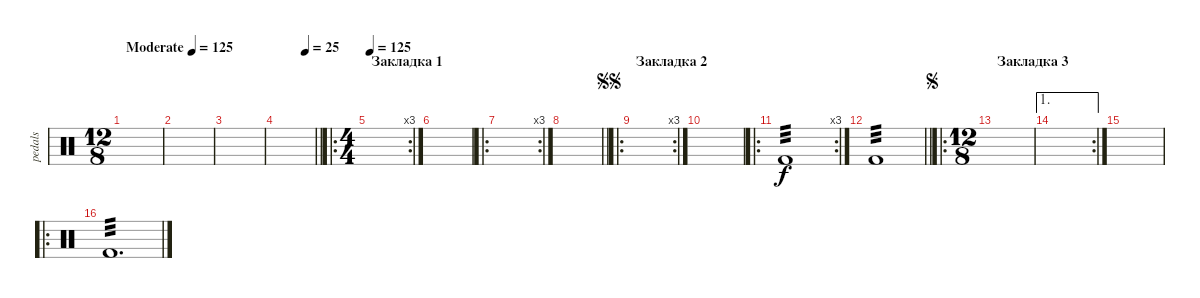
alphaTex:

\track ("pedals" "pedals") {instrument percussion}
\staff {score}
\articulation defaults
\ts (12 8)
\tempo (125 "Moderate")
\clef neutral
\ks c
|
|
|
\tempo (25 0.75)
\barLineRight lightlight
|
\ro
\rc 3
\ts (4 4)
\section ("" "Закладка 1")
\tempo 125
|
|
\ro
\rc 3
|
\barLineRight lightlight
|
\ro
\rc 3
\section ("" "Закладка 2")
\jump segnosegno
|
|
\ro
\rc 3 "Kick (hit) 2".1{tp 3}
|
\barLineRight lightlight "Kick (hit) 2".1{tp 3}
|
\ro
\ts (12 8)
\section ("" "Закладка 3")
\jump segno
|
\ae 1
\rc 2
|
|
\ro "Kick (hit) 2".1{d tp 3}
